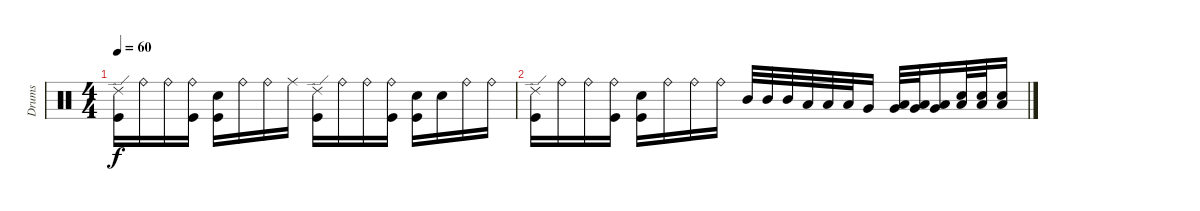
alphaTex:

\track ("Drums" "Drums") {instrument percussion}
\staff {score}
\articulation defaults
\ts (4 4)
\tempo 60
\clef neutral
\ks c
("Ride (edge) 2" "Kick (hit)").16{dy f} "Ride (bell)".16 "Ride (bell)".16 ("Ride (bell)" "Kick (hit)").16 ("Electric Snare (hit)" "Kick (hit)").16 "Ride (bell)".16 "Ride (bell)".16 "Ride (middle)".16 ("Ride (edge) 2" "Kick (hit)").16 "Ride (bell)".16 "Ride (bell)".16 ("Ride (bell)" "Kick (hit)").16 ("Electric Snare (hit)" "Kick (hit)").16 "Electric Snare (hit)".16 "Ride (bell)".16 "Ride (bell)".16 |
("Ride (edge) 2" "Kick (hit)").16 "Ride (bell)".16 "Ride (bell)".16 ("Ride (bell)" "Kick (hit)").16 ("Electric Snare (hit)" "Kick (hit)").16 "Ride (bell)".16 "Ride (bell)".16 "Ride (bell)".16 "Mid Tom (hit)".32 "Mid Tom (hit)".32 "Mid Tom (hit)".32 "Low Tom (hit)".32 "Low Tom (hit)".32 "Low Tom (hit)".32 "Very Low Tom (hit)".16 ("Low Floor Tom (hit)" "Very Low Tom (hit)").32 ("Low Floor Tom (hit)" "Very Low Tom (hit)").32 ("Low Floor Tom (hit)" "Very Low Tom (hit)").16 ("Electric Snare (hit)" "Low Floor Tom (hit)").32 ("Electric Snare (hit)" "Low Floor Tom (hit)").32 ("Electric Snare (hit)" "Low Floor Tom (hit)").16
